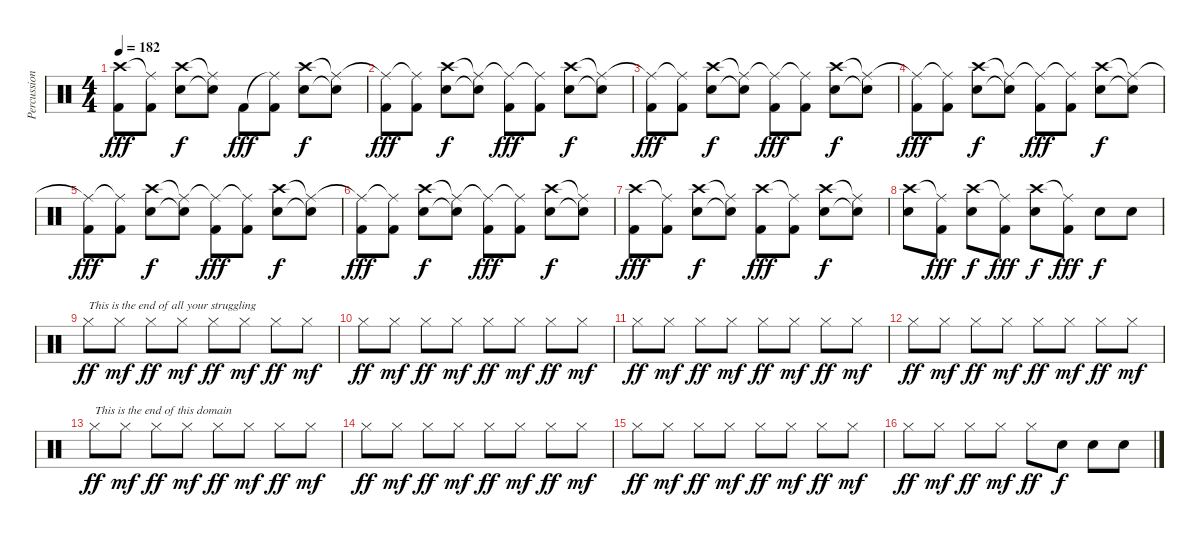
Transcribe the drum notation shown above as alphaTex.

\track ("Percussion" "Percussion") {instrument percussion}
\staff {score}
\articulation defaults
\ts (4 4)
\tempo 182
\clef neutral
\ks c
("Crash high (hit)"{t} "Kick (hit) 2").8{dy fff} ("Ride (middle)"{t} "Kick (hit) 2").8 ("Crash high (hit)" "Snare (hit) 2").8{dy f} ("Ride (middle)"{t} "Snare (hit)"{t}).8 "Kick (hit) 2".8{dy fff} ("Ride (middle)"{t} "Kick (hit) 2").8 ("Crash high (hit)" "Snare (hit) 2").8{dy f} ("Ride (middle)"{t} "Snare (hit)"{t}).8 |
("Ride (middle)"{t} "Kick (hit) 2").8{dy fff} ("Ride (middle)"{t} "Kick (hit) 2").8 ("Crash high (hit)" "Snare (hit) 2").8{dy f} ("Ride (middle)"{t} "Snare (hit)"{t}).8 ("Ride (middle)"{t} "Kick (hit) 2").8{dy fff} ("Ride (middle)"{t} "Kick (hit) 2").8 ("Crash high (hit)" "Snare (hit) 2").8{dy f} ("Ride (middle)"{t} "Snare (hit)"{t}).8 |
("Ride (middle)"{t} "Kick (hit) 2").8{dy fff} ("Ride (middle)"{t} "Kick (hit) 2").8 ("Crash high (hit)" "Snare (hit) 2").8{dy f} ("Ride (middle)"{t} "Snare (hit)"{t}).8 ("Ride (middle)"{t} "Kick (hit) 2").8{dy fff} ("Ride (middle)"{t} "Kick (hit) 2").8 ("Crash high (hit)" "Snare (hit) 2").8{dy f} ("Ride (middle)"{t} "Snare (hit)"{t}).8 |
("Ride (middle)"{t} "Kick (hit) 2").8{dy fff} ("Ride (middle)"{t} "Kick (hit) 2").8 ("Crash high (hit)" "Snare (hit) 2").8{dy f} ("Ride (middle)"{t} "Snare (hit)"{t}).8 ("Ride (middle)"{t} "Kick (hit) 2").8{dy fff} ("Ride (middle)"{t} "Kick (hit) 2").8 ("Crash high (hit)" "Snare (hit) 2").8{dy f} ("Ride (middle)"{t} "Snare (hit)"{t}).8 |
("Ride (middle)"{t} "Kick (hit) 2").8{dy fff} ("Ride (middle)"{t} "Kick (hit) 2").8 ("Crash high (hit)" "Snare (hit) 2").8{dy f} ("Ride (middle)"{t} "Snare (hit)"{t}).8 ("Ride (middle)"{t} "Kick (hit) 2").8{dy fff} ("Ride (middle)"{t} "Kick (hit) 2").8 ("Crash high (hit)" "Snare (hit) 2").8{dy f} ("Ride (middle)"{t} "Snare (hit)"{t}).8 |
("Ride (middle)"{t} "Kick (hit) 2").8{dy fff} ("Ride (middle)"{t} "Kick (hit) 2").8 ("Crash high (hit)" "Snare (hit) 2").8{dy f} ("Ride (middle)"{t} "Snare (hit)"{t}).8 ("Ride (middle)"{t} "Kick (hit) 2").8{dy fff} ("Ride (middle)"{t} "Kick (hit) 2").8 ("Crash high (hit)" "Snare (hit) 2").8{dy f} ("Ride (middle)"{t} "Snare (hit)"{t}).8 |
("Crash high (hit)" "Kick (hit) 2").8{dy fff} ("Ride (middle)"{t} "Kick (hit) 2").8 ("Crash high (hit)" "Snare (hit) 2").8{dy f} ("Ride (middle)"{t} "Snare (hit)"{t}).8 ("Crash high (hit)" "Kick (hit) 2").8{dy fff} ("Ride (middle)"{t} "Kick (hit) 2").8 ("Crash high (hit)" "Snare (hit) 2").8{dy f} ("Ride (middle)"{t} "Snare (hit)"{t}).8 |
("Crash high (hit)" "Snare (hit) 2").8 ("Ride (middle)"{t} "Kick (hit) 2").8{dy fff} ("Crash high (hit)" "Snare (hit) 2").8{dy f} ("Ride (middle)"{t} "Kick (hit) 2").8{dy fff} ("Crash high (hit)" "Snare (hit) 2").8{dy f} ("Ride (middle)"{t} "Kick (hit) 2").8{dy fff} "Snare (hit) 2".8{dy f} "Snare (hit) 2".8 |
"Hi-Hat (closed)".8{txt "This is the end of all your struggling" dy ff} "Hi-Hat (closed)".8{dy mf} "Hi-Hat (closed)".8{dy ff} "Hi-Hat (closed)".8{dy mf} "Hi-Hat (closed)".8{dy ff} "Hi-Hat (closed)".8{dy mf} "Hi-Hat (closed)".8{dy ff} "Hi-Hat (closed)".8{dy mf} |
"Hi-Hat (closed)".8{dy ff} "Hi-Hat (closed)".8{dy mf} "Hi-Hat (closed)".8{dy ff} "Hi-Hat (closed)".8{dy mf} "Hi-Hat (closed)".8{dy ff} "Hi-Hat (closed)".8{dy mf} "Hi-Hat (closed)".8{dy ff} "Hi-Hat (closed)".8{dy mf} |
"Hi-Hat (closed)".8{dy ff} "Hi-Hat (closed)".8{dy mf} "Hi-Hat (closed)".8{dy ff} "Hi-Hat (closed)".8{dy mf} "Hi-Hat (closed)".8{dy ff} "Hi-Hat (closed)".8{dy mf} "Hi-Hat (closed)".8{dy ff} "Hi-Hat (closed)".8{dy mf} |
"Hi-Hat (closed)".8{dy ff} "Hi-Hat (closed)".8{dy mf} "Hi-Hat (closed)".8{dy ff} "Hi-Hat (closed)".8{dy mf} "Hi-Hat (closed)".8{dy ff} "Hi-Hat (closed)".8{dy mf} "Hi-Hat (closed)".8{dy ff} "Hi-Hat (closed)".8{dy mf} |
"Hi-Hat (closed)".8{txt "This is the end of this domain" dy ff} "Hi-Hat (closed)".8{dy mf} "Hi-Hat (closed)".8{dy ff} "Hi-Hat (closed)".8{dy mf} "Hi-Hat (closed)".8{dy ff} "Hi-Hat (closed)".8{dy mf} "Hi-Hat (closed)".8{dy ff} "Hi-Hat (closed)".8{dy mf} |
"Hi-Hat (closed)".8{dy ff} "Hi-Hat (closed)".8{dy mf} "Hi-Hat (closed)".8{dy ff} "Hi-Hat (closed)".8{dy mf} "Hi-Hat (closed)".8{dy ff} "Hi-Hat (closed)".8{dy mf} "Hi-Hat (closed)".8{dy ff} "Hi-Hat (closed)".8{dy mf} |
"Hi-Hat (closed)".8{dy ff} "Hi-Hat (closed)".8{dy mf} "Hi-Hat (closed)".8{dy ff} "Hi-Hat (closed)".8{dy mf} "Hi-Hat (closed)".8{dy ff} "Hi-Hat (closed)".8{dy mf} "Hi-Hat (closed)".8{dy ff} "Hi-Hat (closed)".8{dy mf} |
"Hi-Hat (closed)".8{dy ff} "Hi-Hat (closed)".8{dy mf} "Hi-Hat (closed)".8{dy ff} "Hi-Hat (closed)".8{dy mf} "Hi-Hat (closed)".8{dy ff} "Snare (hit) 2".8{dy f} "Snare (hit) 2".8 "Snare (hit) 2".8
